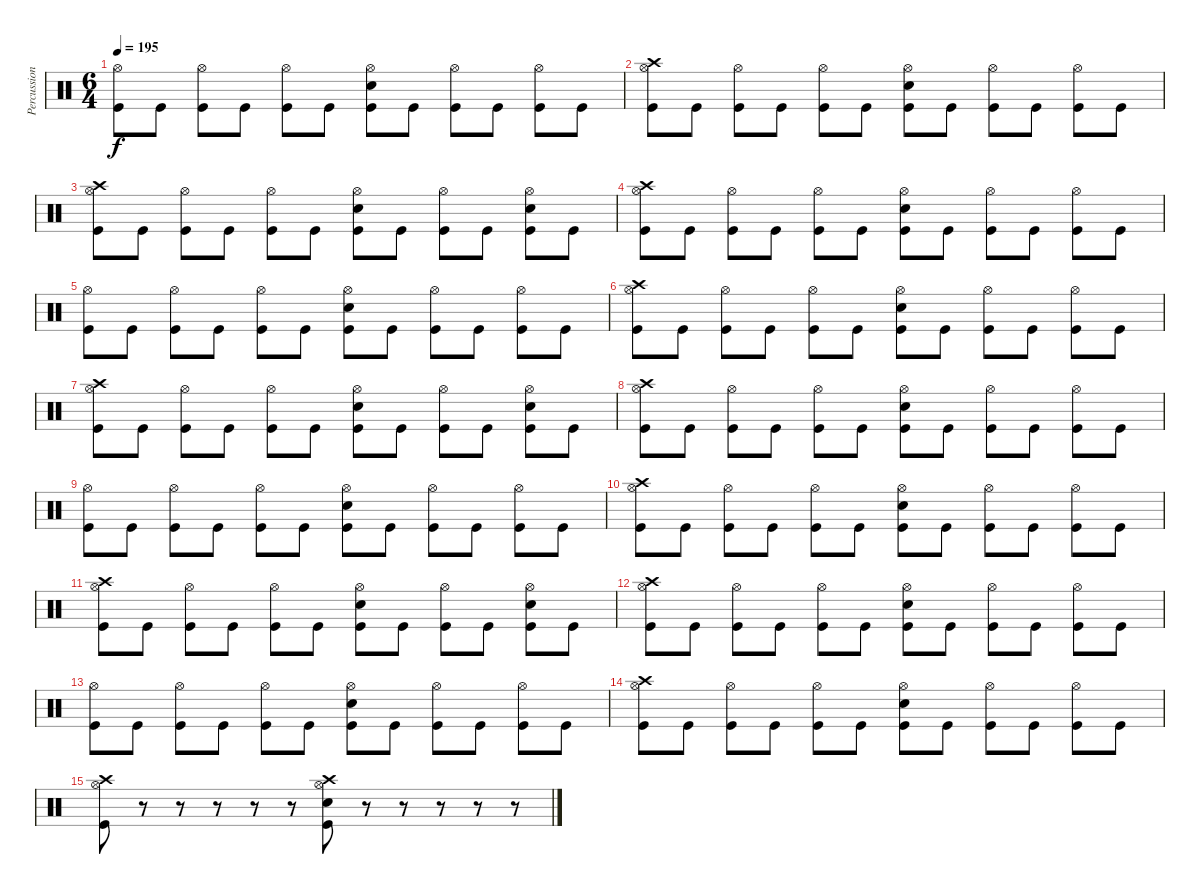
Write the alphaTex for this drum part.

\track ("Percussion" "Percussion") {instrument percussion}
\staff {score}
\articulation defaults
\ts (6 4)
\tempo 195
\clef neutral
\ks c
("Hi-Hat (open)" "Kick (hit)").8{dy f} "Kick (hit)".8 ("Hi-Hat (open)" "Kick (hit)").8 "Kick (hit)".8 ("Hi-Hat (open)" "Kick (hit)").8 "Kick (hit)".8 ("Electric Snare (hit)" "Hi-Hat (open)" "Kick (hit)").8 "Kick (hit)".8 ("Hi-Hat (open)" "Kick (hit)").8 "Kick (hit)".8 ("Hi-Hat (open)" "Kick (hit)").8 "Kick (hit)".8 |
("Crash high (hit)" "Hi-Hat (open)" "Kick (hit)").8 "Kick (hit)".8 ("Hi-Hat (open)" "Kick (hit)").8 "Kick (hit)".8 ("Hi-Hat (open)" "Kick (hit)").8 "Kick (hit)".8 ("Electric Snare (hit)" "Hi-Hat (open)" "Kick (hit)").8 "Kick (hit)".8 ("Hi-Hat (open)" "Kick (hit)").8 "Kick (hit)".8 ("Hi-Hat (open)" "Kick (hit)").8 "Kick (hit)".8 |
("Crash high (hit)" "Hi-Hat (open)" "Kick (hit)").8 "Kick (hit)".8 ("Hi-Hat (open)" "Kick (hit)").8 "Kick (hit)".8 ("Hi-Hat (open)" "Kick (hit)").8 "Kick (hit)".8 ("Electric Snare (hit)" "Hi-Hat (open)" "Kick (hit)").8 "Kick (hit)".8 ("Hi-Hat (open)" "Kick (hit)").8 "Kick (hit)".8 ("Electric Snare (hit)" "Hi-Hat (open)" "Kick (hit)").8 "Kick (hit)".8 |
("Crash high (hit)" "Hi-Hat (open)" "Kick (hit)").8 "Kick (hit)".8 ("Hi-Hat (open)" "Kick (hit)").8 "Kick (hit)".8 ("Hi-Hat (open)" "Kick (hit)").8 "Kick (hit)".8 ("Electric Snare (hit)" "Hi-Hat (open)" "Kick (hit)").8 "Kick (hit)".8 ("Hi-Hat (open)" "Kick (hit)").8 "Kick (hit)".8 ("Hi-Hat (open)" "Kick (hit)").8 "Kick (hit)".8 |
("Hi-Hat (open)" "Kick (hit)").8 "Kick (hit)".8 ("Hi-Hat (open)" "Kick (hit)").8 "Kick (hit)".8 ("Hi-Hat (open)" "Kick (hit)").8 "Kick (hit)".8 ("Electric Snare (hit)" "Hi-Hat (open)" "Kick (hit)").8 "Kick (hit)".8 ("Hi-Hat (open)" "Kick (hit)").8 "Kick (hit)".8 ("Hi-Hat (open)" "Kick (hit)").8 "Kick (hit)".8 |
("Crash high (hit)" "Hi-Hat (open)" "Kick (hit)").8 "Kick (hit)".8 ("Hi-Hat (open)" "Kick (hit)").8 "Kick (hit)".8 ("Hi-Hat (open)" "Kick (hit)").8 "Kick (hit)".8 ("Electric Snare (hit)" "Hi-Hat (open)" "Kick (hit)").8 "Kick (hit)".8 ("Hi-Hat (open)" "Kick (hit)").8 "Kick (hit)".8 ("Hi-Hat (open)" "Kick (hit)").8 "Kick (hit)".8 |
("Crash high (hit)" "Hi-Hat (open)" "Kick (hit)").8 "Kick (hit)".8 ("Hi-Hat (open)" "Kick (hit)").8 "Kick (hit)".8 ("Hi-Hat (open)" "Kick (hit)").8 "Kick (hit)".8 ("Electric Snare (hit)" "Hi-Hat (open)" "Kick (hit)").8 "Kick (hit)".8 ("Hi-Hat (open)" "Kick (hit)").8 "Kick (hit)".8 ("Electric Snare (hit)" "Hi-Hat (open)" "Kick (hit)").8 "Kick (hit)".8 |
("Crash high (hit)" "Hi-Hat (open)" "Kick (hit)").8 "Kick (hit)".8 ("Hi-Hat (open)" "Kick (hit)").8 "Kick (hit)".8 ("Hi-Hat (open)" "Kick (hit)").8 "Kick (hit)".8 ("Electric Snare (hit)" "Hi-Hat (open)" "Kick (hit)").8 "Kick (hit)".8 ("Hi-Hat (open)" "Kick (hit)").8 "Kick (hit)".8 ("Hi-Hat (open)" "Kick (hit)").8 "Kick (hit)".8 |
("Hi-Hat (open)" "Kick (hit)").8 "Kick (hit)".8 ("Hi-Hat (open)" "Kick (hit)").8 "Kick (hit)".8 ("Hi-Hat (open)" "Kick (hit)").8 "Kick (hit)".8 ("Electric Snare (hit)" "Hi-Hat (open)" "Kick (hit)").8 "Kick (hit)".8 ("Hi-Hat (open)" "Kick (hit)").8 "Kick (hit)".8 ("Hi-Hat (open)" "Kick (hit)").8 "Kick (hit)".8 |
("Crash high (hit)" "Hi-Hat (open)" "Kick (hit)").8 "Kick (hit)".8 ("Hi-Hat (open)" "Kick (hit)").8 "Kick (hit)".8 ("Hi-Hat (open)" "Kick (hit)").8 "Kick (hit)".8 ("Electric Snare (hit)" "Hi-Hat (open)" "Kick (hit)").8 "Kick (hit)".8 ("Hi-Hat (open)" "Kick (hit)").8 "Kick (hit)".8 ("Hi-Hat (open)" "Kick (hit)").8 "Kick (hit)".8 |
("Crash high (hit)" "Hi-Hat (open)" "Kick (hit)").8 "Kick (hit)".8 ("Hi-Hat (open)" "Kick (hit)").8 "Kick (hit)".8 ("Hi-Hat (open)" "Kick (hit)").8 "Kick (hit)".8 ("Electric Snare (hit)" "Hi-Hat (open)" "Kick (hit)").8 "Kick (hit)".8 ("Hi-Hat (open)" "Kick (hit)").8 "Kick (hit)".8 ("Electric Snare (hit)" "Hi-Hat (open)" "Kick (hit)").8 "Kick (hit)".8 |
("Crash high (hit)" "Hi-Hat (open)" "Kick (hit)").8 "Kick (hit)".8 ("Hi-Hat (open)" "Kick (hit)").8 "Kick (hit)".8 ("Hi-Hat (open)" "Kick (hit)").8 "Kick (hit)".8 ("Electric Snare (hit)" "Hi-Hat (open)" "Kick (hit)").8 "Kick (hit)".8 ("Hi-Hat (open)" "Kick (hit)").8 "Kick (hit)".8 ("Hi-Hat (open)" "Kick (hit)").8 "Kick (hit)".8 |
("Hi-Hat (open)" "Kick (hit)").8 "Kick (hit)".8 ("Hi-Hat (open)" "Kick (hit)").8 "Kick (hit)".8 ("Hi-Hat (open)" "Kick (hit)").8 "Kick (hit)".8 ("Electric Snare (hit)" "Hi-Hat (open)" "Kick (hit)").8 "Kick (hit)".8 ("Hi-Hat (open)" "Kick (hit)").8 "Kick (hit)".8 ("Hi-Hat (open)" "Kick (hit)").8 "Kick (hit)".8 |
("Crash high (hit)" "Hi-Hat (open)" "Kick (hit)").8 "Kick (hit)".8 ("Hi-Hat (open)" "Kick (hit)").8 "Kick (hit)".8 ("Hi-Hat (open)" "Kick (hit)").8 "Kick (hit)".8 ("Electric Snare (hit)" "Hi-Hat (open)" "Kick (hit)").8 "Kick (hit)".8 ("Hi-Hat (open)" "Kick (hit)").8 "Kick (hit)".8 ("Hi-Hat (open)" "Kick (hit)").8 "Kick (hit)".8 |
("Crash high (hit)" "Hi-Hat (open)" "Kick (hit)").8 r.8 r.8 r.8 r.8 r.8 ("Crash high (hit)" "Electric Snare (hit)" "Hi-Hat (open)" "Kick (hit)").8 r.8 r.8 r.8 r.8 r.8
